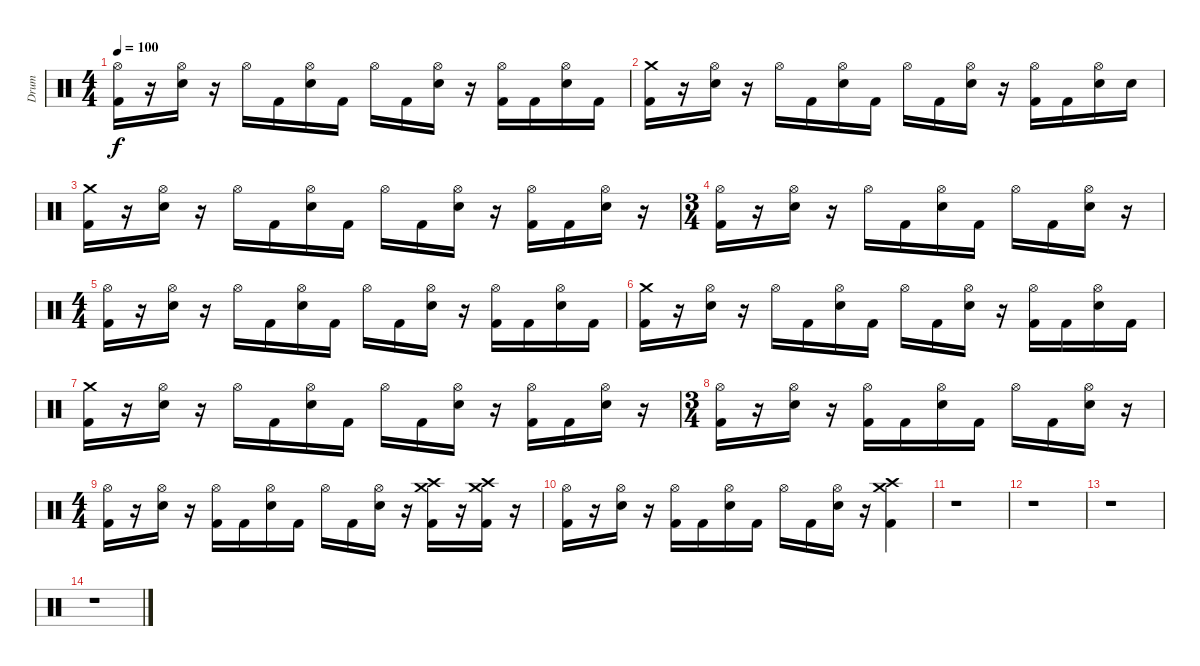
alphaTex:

\track ("Drum" "Drum") {instrument percussion}
\staff {score}
\articulation defaults
\ts (4 4)
\tempo 100
\clef neutral
\ks c
("Hi-Hat (open)" "Kick (hit) 2").16{dy f} r.16 ("Hi-Hat (open)" "Electric Snare (hit)").16 r.16 "Hi-Hat (open)".16 "Kick (hit) 2".16 ("Hi-Hat (open)" "Electric Snare (hit)").16 "Kick (hit) 2".16 "Hi-Hat (open)".16 "Kick (hit) 2".16 ("Hi-Hat (open)" "Electric Snare (hit)").16 r.16 ("Hi-Hat (open)" "Kick (hit) 2").16 "Kick (hit) 2".16 ("Hi-Hat (open)" "Electric Snare (hit)").16 "Kick (hit) 2".16 |
("Crash medium (hit)" "Kick (hit) 2").16 r.16 ("Hi-Hat (open)" "Electric Snare (hit)").16 r.16 "Hi-Hat (open)".16 "Kick (hit) 2".16 ("Hi-Hat (open)" "Electric Snare (hit)").16 "Kick (hit) 2".16 "Hi-Hat (open)".16 "Kick (hit) 2".16 ("Hi-Hat (open)" "Electric Snare (hit)").16 r.16 ("Hi-Hat (open)" "Kick (hit) 2").16 "Kick (hit) 2".16 ("Hi-Hat (open)" "Electric Snare (hit)").16 "Electric Snare (hit)".16 |
("Crash medium (hit)" "Kick (hit) 2").16 r.16 ("Hi-Hat (open)" "Electric Snare (hit)").16 r.16 "Hi-Hat (open)".16 "Kick (hit) 2".16 ("Hi-Hat (open)" "Electric Snare (hit)").16 "Kick (hit) 2".16 "Hi-Hat (open)".16 "Kick (hit) 2".16 ("Hi-Hat (open)" "Electric Snare (hit)").16 r.16 ("Hi-Hat (open)" "Kick (hit) 2").16 "Kick (hit) 2".16 ("Hi-Hat (open)" "Electric Snare (hit)").16 r.16 |
\ts (3 4)
("Hi-Hat (open)" "Kick (hit) 2").16 r.16 ("Hi-Hat (open)" "Electric Snare (hit)").16 r.16 "Hi-Hat (open)".16 "Kick (hit) 2".16 ("Hi-Hat (open)" "Electric Snare (hit)").16 "Kick (hit) 2".16 "Hi-Hat (open)".16 "Kick (hit) 2".16 ("Hi-Hat (open)" "Electric Snare (hit)").16 r.16 |
\ts (4 4)
("Hi-Hat (open)" "Kick (hit) 2").16 r.16 ("Hi-Hat (open)" "Electric Snare (hit)").16 r.16 "Hi-Hat (open)".16 "Kick (hit) 2".16 ("Hi-Hat (open)" "Electric Snare (hit)").16 "Kick (hit) 2".16 "Hi-Hat (open)".16 "Kick (hit) 2".16 ("Hi-Hat (open)" "Electric Snare (hit)").16 r.16 ("Hi-Hat (open)" "Kick (hit) 2").16 "Kick (hit) 2".16 ("Hi-Hat (open)" "Electric Snare (hit)").16 "Kick (hit) 2".16 |
("Crash medium (hit)" "Kick (hit) 2").16 r.16 ("Hi-Hat (open)" "Electric Snare (hit)").16 r.16 "Hi-Hat (open)".16 "Kick (hit) 2".16 ("Hi-Hat (open)" "Electric Snare (hit)").16 "Kick (hit) 2".16 "Hi-Hat (open)".16 "Kick (hit) 2".16 ("Hi-Hat (open)" "Electric Snare (hit)").16 r.16 ("Hi-Hat (open)" "Kick (hit) 2").16 "Kick (hit) 2".16 ("Hi-Hat (open)" "Electric Snare (hit)").16 "Kick (hit) 2".16 |
("Crash medium (hit)" "Kick (hit) 2").16 r.16 ("Hi-Hat (open)" "Electric Snare (hit)").16 r.16 "Hi-Hat (open)".16 "Kick (hit) 2".16 ("Hi-Hat (open)" "Electric Snare (hit)").16 "Kick (hit) 2".16 "Hi-Hat (open)".16 "Kick (hit) 2".16 ("Hi-Hat (open)" "Electric Snare (hit)").16 r.16 ("Hi-Hat (open)" "Kick (hit) 2").16 "Kick (hit) 2".16 ("Hi-Hat (open)" "Electric Snare (hit)").16 r.16 |
\ts (3 4)
("Hi-Hat (open)" "Kick (hit) 2").16 r.16 ("Hi-Hat (open)" "Electric Snare (hit)").16 r.16 ("Hi-Hat (open)" "Kick (hit) 2").16 "Kick (hit) 2".16 ("Hi-Hat (open)" "Electric Snare (hit)").16 "Kick (hit) 2".16 "Hi-Hat (open)".16 "Kick (hit) 2".16 ("Hi-Hat (open)" "Electric Snare (hit)").16 r.16 |
\ts (4 4)
("Hi-Hat (open)" "Kick (hit) 2").16 r.16 ("Hi-Hat (open)" "Electric Snare (hit)").16 r.16 ("Hi-Hat (open)" "Kick (hit) 2").16 "Kick (hit) 2".16 ("Hi-Hat (open)" "Electric Snare (hit)").16 "Kick (hit) 2".16 "Hi-Hat (open)".16 "Kick (hit) 2".16 ("Hi-Hat (open)" "Electric Snare (hit)").16 r.16 ("Crash high (hit)" "Crash medium (hit)" "Kick (hit) 2").16 r.16 ("Crash high (hit)" "Crash medium (hit)" "Kick (hit) 2").16 r.16 |
("Hi-Hat (open)" "Kick (hit) 2").16 r.16 ("Hi-Hat (open)" "Electric Snare (hit)").16 r.16 ("Hi-Hat (open)" "Kick (hit) 2").16 "Kick (hit) 2".16 ("Hi-Hat (open)" "Electric Snare (hit)").16 "Kick (hit) 2".16 "Hi-Hat (open)".16 "Kick (hit) 2".16 ("Hi-Hat (open)" "Electric Snare (hit)").16 r.16 ("Crash high (hit)" "Crash medium (hit)" "Kick (hit) 2").4 |
r.1 |
r.1 |
r.1 |
r.1
